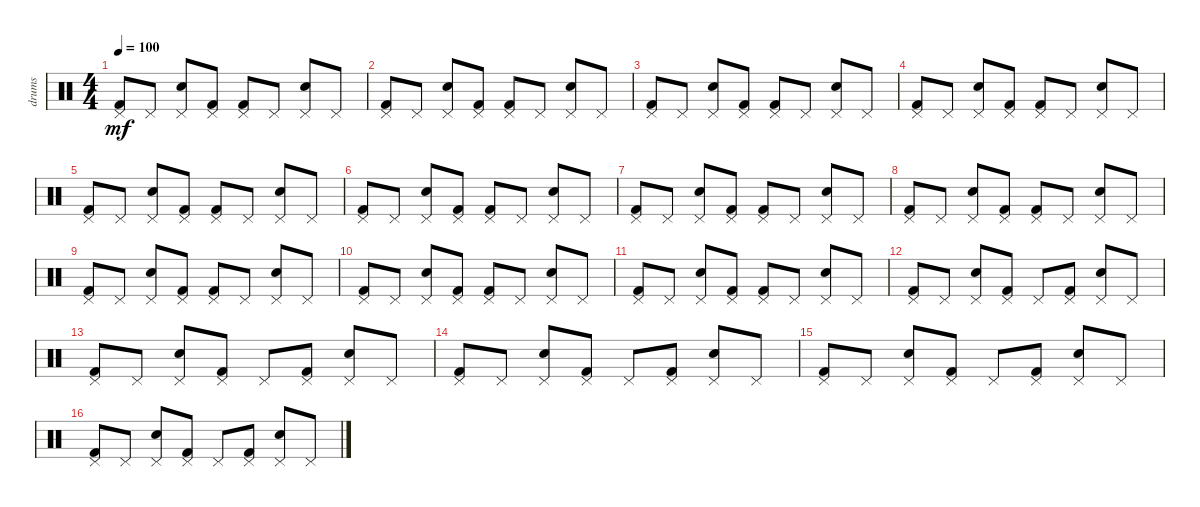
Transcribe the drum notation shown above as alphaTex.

\track ("drums" "drums") {instrument percussion}
\staff {score}
\articulation defaults
\ts (4 4)
\tempo 100
\clef neutral
\ks c
("Kick (hit) 2" "Pedal Hi-Hat (hit)").8{dy mf} "Pedal Hi-Hat (hit)".8 ("Snare (hit) 2" "Pedal Hi-Hat (hit)").8 ("Kick (hit) 2" "Pedal Hi-Hat (hit)").8 ("Kick (hit) 2" "Pedal Hi-Hat (hit)").8 "Pedal Hi-Hat (hit)".8 ("Snare (hit) 2" "Pedal Hi-Hat (hit)").8 "Pedal Hi-Hat (hit)".8 |
("Kick (hit) 2" "Pedal Hi-Hat (hit)").8 "Pedal Hi-Hat (hit)".8 ("Snare (hit) 2" "Pedal Hi-Hat (hit)").8 ("Kick (hit) 2" "Pedal Hi-Hat (hit)").8 ("Kick (hit) 2" "Pedal Hi-Hat (hit)").8 "Pedal Hi-Hat (hit)".8 ("Snare (hit) 2" "Pedal Hi-Hat (hit)").8 "Pedal Hi-Hat (hit)".8 |
("Kick (hit) 2" "Pedal Hi-Hat (hit)").8 "Pedal Hi-Hat (hit)".8 ("Snare (hit) 2" "Pedal Hi-Hat (hit)").8 ("Kick (hit) 2" "Pedal Hi-Hat (hit)").8 ("Kick (hit) 2" "Pedal Hi-Hat (hit)").8 "Pedal Hi-Hat (hit)".8 ("Snare (hit) 2" "Pedal Hi-Hat (hit)").8 "Pedal Hi-Hat (hit)".8 |
("Kick (hit) 2" "Pedal Hi-Hat (hit)").8 "Pedal Hi-Hat (hit)".8 ("Snare (hit) 2" "Pedal Hi-Hat (hit)").8 ("Kick (hit) 2" "Pedal Hi-Hat (hit)").8 ("Kick (hit) 2" "Pedal Hi-Hat (hit)").8 "Pedal Hi-Hat (hit)".8 ("Snare (hit) 2" "Pedal Hi-Hat (hit)").8 "Pedal Hi-Hat (hit)".8 |
("Kick (hit) 2" "Pedal Hi-Hat (hit)").8 "Pedal Hi-Hat (hit)".8 ("Snare (hit) 2" "Pedal Hi-Hat (hit)").8 ("Kick (hit) 2" "Pedal Hi-Hat (hit)").8 ("Kick (hit) 2" "Pedal Hi-Hat (hit)").8 "Pedal Hi-Hat (hit)".8 ("Snare (hit) 2" "Pedal Hi-Hat (hit)").8 "Pedal Hi-Hat (hit)".8 |
("Kick (hit) 2" "Pedal Hi-Hat (hit)").8 "Pedal Hi-Hat (hit)".8 ("Snare (hit) 2" "Pedal Hi-Hat (hit)").8 ("Kick (hit) 2" "Pedal Hi-Hat (hit)").8 ("Kick (hit) 2" "Pedal Hi-Hat (hit)").8 "Pedal Hi-Hat (hit)".8 ("Snare (hit) 2" "Pedal Hi-Hat (hit)").8 "Pedal Hi-Hat (hit)".8 |
("Kick (hit) 2" "Pedal Hi-Hat (hit)").8 "Pedal Hi-Hat (hit)".8 ("Snare (hit) 2" "Pedal Hi-Hat (hit)").8 ("Kick (hit) 2" "Pedal Hi-Hat (hit)").8 ("Kick (hit) 2" "Pedal Hi-Hat (hit)").8 "Pedal Hi-Hat (hit)".8 ("Snare (hit) 2" "Pedal Hi-Hat (hit)").8 "Pedal Hi-Hat (hit)".8 |
("Kick (hit) 2" "Pedal Hi-Hat (hit)").8 "Pedal Hi-Hat (hit)".8 ("Snare (hit) 2" "Pedal Hi-Hat (hit)").8 ("Kick (hit) 2" "Pedal Hi-Hat (hit)").8 ("Kick (hit) 2" "Pedal Hi-Hat (hit)").8 "Pedal Hi-Hat (hit)".8 ("Snare (hit) 2" "Pedal Hi-Hat (hit)").8 "Pedal Hi-Hat (hit)".8 |
("Kick (hit) 2" "Pedal Hi-Hat (hit)").8 "Pedal Hi-Hat (hit)".8 ("Snare (hit) 2" "Pedal Hi-Hat (hit)").8 ("Kick (hit) 2" "Pedal Hi-Hat (hit)").8 ("Kick (hit) 2" "Pedal Hi-Hat (hit)").8 "Pedal Hi-Hat (hit)".8 ("Snare (hit) 2" "Pedal Hi-Hat (hit)").8 "Pedal Hi-Hat (hit)".8 |
("Kick (hit) 2" "Pedal Hi-Hat (hit)").8 "Pedal Hi-Hat (hit)".8 ("Snare (hit) 2" "Pedal Hi-Hat (hit)").8 ("Kick (hit) 2" "Pedal Hi-Hat (hit)").8 ("Kick (hit) 2" "Pedal Hi-Hat (hit)").8 "Pedal Hi-Hat (hit)".8 ("Snare (hit) 2" "Pedal Hi-Hat (hit)").8 "Pedal Hi-Hat (hit)".8 |
("Kick (hit) 2" "Pedal Hi-Hat (hit)").8 "Pedal Hi-Hat (hit)".8 ("Snare (hit) 2" "Pedal Hi-Hat (hit)").8 ("Kick (hit) 2" "Pedal Hi-Hat (hit)").8 ("Kick (hit) 2" "Pedal Hi-Hat (hit)").8 "Pedal Hi-Hat (hit)".8 ("Snare (hit) 2" "Pedal Hi-Hat (hit)").8 "Pedal Hi-Hat (hit)".8 |
("Kick (hit) 2" "Pedal Hi-Hat (hit)").8 "Pedal Hi-Hat (hit)".8 ("Snare (hit) 2" "Pedal Hi-Hat (hit)").8 ("Kick (hit) 2" "Pedal Hi-Hat (hit)").8 "Pedal Hi-Hat (hit)".8 ("Kick (hit) 2" "Pedal Hi-Hat (hit)").8 ("Snare (hit) 2" "Pedal Hi-Hat (hit)").8 "Pedal Hi-Hat (hit)".8 |
("Kick (hit) 2" "Pedal Hi-Hat (hit)").8 "Pedal Hi-Hat (hit)".8 ("Snare (hit) 2" "Pedal Hi-Hat (hit)").8 ("Kick (hit) 2" "Pedal Hi-Hat (hit)").8 "Pedal Hi-Hat (hit)".8 ("Kick (hit) 2" "Pedal Hi-Hat (hit)").8 ("Snare (hit) 2" "Pedal Hi-Hat (hit)").8 "Pedal Hi-Hat (hit)".8 |
("Kick (hit) 2" "Pedal Hi-Hat (hit)").8 "Pedal Hi-Hat (hit)".8 ("Snare (hit) 2" "Pedal Hi-Hat (hit)").8 ("Kick (hit) 2" "Pedal Hi-Hat (hit)").8 "Pedal Hi-Hat (hit)".8 ("Kick (hit) 2" "Pedal Hi-Hat (hit)").8 ("Snare (hit) 2" "Pedal Hi-Hat (hit)").8 "Pedal Hi-Hat (hit)".8 |
("Kick (hit) 2" "Pedal Hi-Hat (hit)").8 "Pedal Hi-Hat (hit)".8 ("Snare (hit) 2" "Pedal Hi-Hat (hit)").8 ("Kick (hit) 2" "Pedal Hi-Hat (hit)").8 "Pedal Hi-Hat (hit)".8 ("Kick (hit) 2" "Pedal Hi-Hat (hit)").8 ("Snare (hit) 2" "Pedal Hi-Hat (hit)").8 "Pedal Hi-Hat (hit)".8 |
("Kick (hit) 2" "Pedal Hi-Hat (hit)").8 "Pedal Hi-Hat (hit)".8 ("Snare (hit) 2" "Pedal Hi-Hat (hit)").8 ("Kick (hit) 2" "Pedal Hi-Hat (hit)").8 "Pedal Hi-Hat (hit)".8 ("Kick (hit) 2" "Pedal Hi-Hat (hit)").8 ("Snare (hit) 2" "Pedal Hi-Hat (hit)").8 "Pedal Hi-Hat (hit)".8
